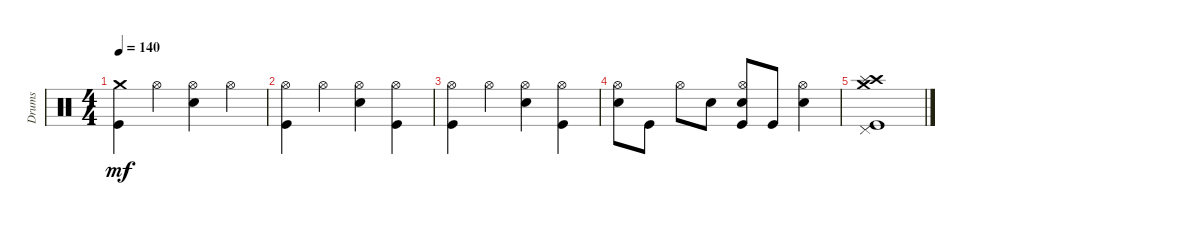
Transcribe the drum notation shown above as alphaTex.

\track ("Drums" "Drums") {instrument percussion}
\staff {score}
\articulation defaults
\ts (4 4)
\tempo 140
\clef neutral
\ks c
("Crash medium (hit)" "Kick (hit)").4{dy mf} "Hi-Hat (open)".4 ("Hi-Hat (open)" "Snare (hit) 2").4 "Hi-Hat (open)".4 |
("Kick (hit)" "Hi-Hat (open)").4 "Hi-Hat (open)".4 ("Hi-Hat (open)" "Snare (hit) 2").4 ("Hi-Hat (open)" "Kick (hit)").4 |
("Hi-Hat (open)" "Kick (hit)").4 "Hi-Hat (open)".4 ("Hi-Hat (open)" "Snare (hit) 2").4 ("Hi-Hat (open)" "Kick (hit)").4 |
("Snare (hit) 2" "Hi-Hat (open)").8 "Kick (hit)".8 "Hi-Hat (open)".8 "Snare (hit) 2".8 ("Kick (hit)" "Hi-Hat (open)" "Snare (hit) 2").8 "Kick (hit)".8 ("Snare (hit) 2" "Hi-Hat (open)").4 |
("Kick (hit)" "Crash high (hit)" "Crash medium (hit)" "Splash (hit)" "Pedal Hi-Hat (hit)").1
